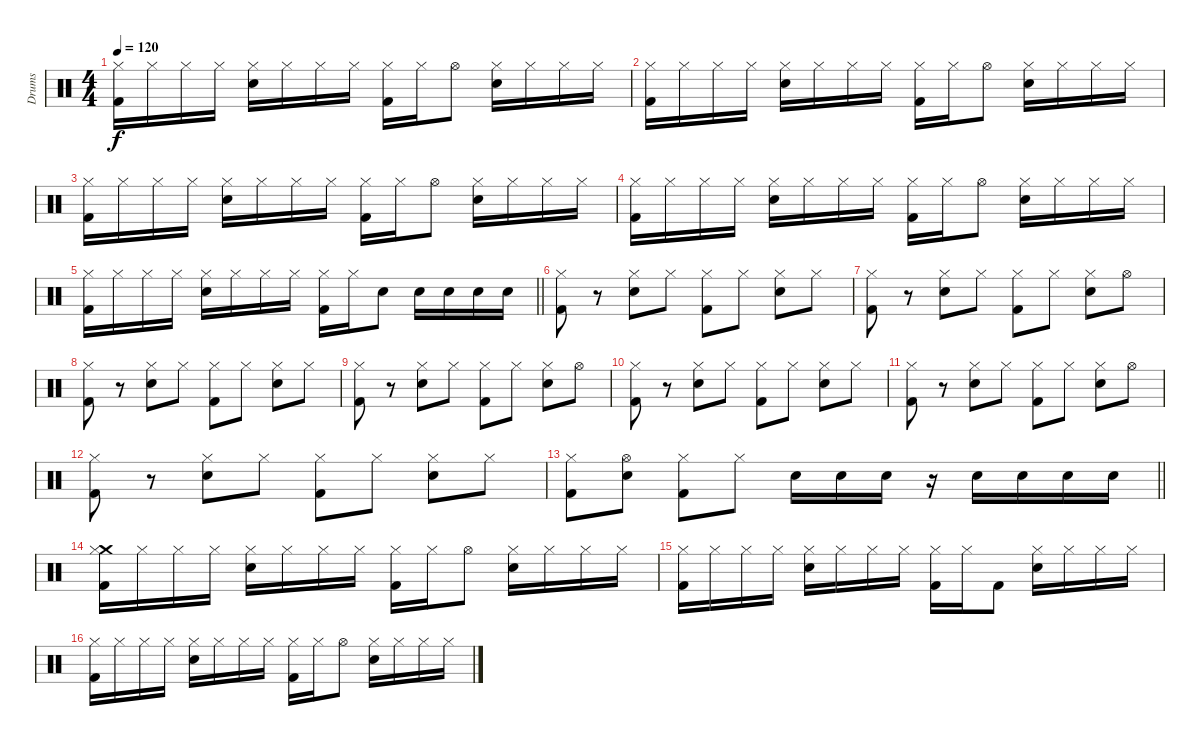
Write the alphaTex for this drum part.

\track ("Drums" "Drums") {instrument percussion}
\staff
\articulation defaults
\ts (4 4)
\tempo 120
\clef neutral
\ks c
("Hi-Hat (closed)" "Kick (hit) 2").16{dy f} "Hi-Hat (closed)".16 "Hi-Hat (closed)".16 "Hi-Hat (closed)".16 ("Hi-Hat (closed)" "Snare (hit) 2").16 "Hi-Hat (closed)".16 "Hi-Hat (closed)".16 "Hi-Hat (closed)".16 ("Hi-Hat (closed)" "Kick (hit) 2").16 "Hi-Hat (closed)".16 "Hi-Hat (open)".8 ("Hi-Hat (closed)" "Snare (hit) 2").16 "Hi-Hat (closed)".16 "Hi-Hat (closed)".16 "Hi-Hat (closed)".16 |
("Hi-Hat (closed)" "Kick (hit) 2").16 "Hi-Hat (closed)".16 "Hi-Hat (closed)".16 "Hi-Hat (closed)".16 ("Hi-Hat (closed)" "Snare (hit) 2").16 "Hi-Hat (closed)".16 "Hi-Hat (closed)".16 "Hi-Hat (closed)".16 ("Hi-Hat (closed)" "Kick (hit) 2").16 "Hi-Hat (closed)".16 "Hi-Hat (open)".8 ("Hi-Hat (closed)" "Snare (hit) 2").16 "Hi-Hat (closed)".16 "Hi-Hat (closed)".16 "Hi-Hat (closed)".16 |
("Hi-Hat (closed)" "Kick (hit) 2").16 "Hi-Hat (closed)".16 "Hi-Hat (closed)".16 "Hi-Hat (closed)".16 ("Hi-Hat (closed)" "Snare (hit) 2").16 "Hi-Hat (closed)".16 "Hi-Hat (closed)".16 "Hi-Hat (closed)".16 ("Hi-Hat (closed)" "Kick (hit) 2").16 "Hi-Hat (closed)".16 "Hi-Hat (open)".8 ("Hi-Hat (closed)" "Snare (hit) 2").16 "Hi-Hat (closed)".16 "Hi-Hat (closed)".16 "Hi-Hat (closed)".16 |
("Hi-Hat (closed)" "Kick (hit) 2").16 "Hi-Hat (closed)".16 "Hi-Hat (closed)".16 "Hi-Hat (closed)".16 ("Hi-Hat (closed)" "Snare (hit) 2").16 "Hi-Hat (closed)".16 "Hi-Hat (closed)".16 "Hi-Hat (closed)".16 ("Hi-Hat (closed)" "Kick (hit) 2").16 "Hi-Hat (closed)".16 "Hi-Hat (open)".8 ("Hi-Hat (closed)" "Snare (hit) 2").16 "Hi-Hat (closed)".16 "Hi-Hat (closed)".16 "Hi-Hat (closed)".16 |
\barLineRight lightlight
("Hi-Hat (closed)" "Kick (hit) 2").16 "Hi-Hat (closed)".16 "Hi-Hat (closed)".16 "Hi-Hat (closed)".16 ("Hi-Hat (closed)" "Snare (hit) 2").16 "Hi-Hat (closed)".16 "Hi-Hat (closed)".16 "Hi-Hat (closed)".16 ("Hi-Hat (closed)" "Kick (hit) 2").16 "Hi-Hat (closed)".16 "Snare (hit) 2".8 "Snare (hit) 2".16 "Snare (hit) 2".16 "Snare (hit) 2".16 "Snare (hit) 2".16 |
("Hi-Hat (closed)" "Kick (hit) 2").8 r.8 ("Hi-Hat (closed)" "Snare (hit) 2").8 "Hi-Hat (closed)".8 ("Hi-Hat (closed)" "Kick (hit) 2").8 "Hi-Hat (closed)".8 ("Hi-Hat (closed)" "Snare (hit) 2").8 "Hi-Hat (closed)".8 |
("Hi-Hat (closed)" "Kick (hit) 2").8 r.8 ("Hi-Hat (closed)" "Snare (hit) 2").8 "Hi-Hat (closed)".8 ("Hi-Hat (closed)" "Kick (hit) 2").8 "Hi-Hat (closed)".8 ("Hi-Hat (closed)" "Snare (hit) 2").8 "Hi-Hat (open)".8 |
("Hi-Hat (closed)" "Kick (hit) 2").8 r.8 ("Hi-Hat (closed)" "Snare (hit) 2").8 "Hi-Hat (closed)".8 ("Hi-Hat (closed)" "Kick (hit) 2").8 "Hi-Hat (closed)".8 ("Hi-Hat (closed)" "Snare (hit) 2").8 "Hi-Hat (closed)".8 |
("Hi-Hat (closed)" "Kick (hit) 2").8 r.8 ("Hi-Hat (closed)" "Snare (hit) 2").8 "Hi-Hat (closed)".8 ("Hi-Hat (closed)" "Kick (hit) 2").8 "Hi-Hat (closed)".8 ("Hi-Hat (closed)" "Snare (hit) 2").8 "Hi-Hat (open)".8 |
("Hi-Hat (closed)" "Kick (hit) 2").8 r.8 ("Hi-Hat (closed)" "Snare (hit) 2").8 "Hi-Hat (closed)".8 ("Hi-Hat (closed)" "Kick (hit) 2").8 "Hi-Hat (closed)".8 ("Hi-Hat (closed)" "Snare (hit) 2").8 "Hi-Hat (closed)".8 |
("Hi-Hat (closed)" "Kick (hit) 2").8 r.8 ("Hi-Hat (closed)" "Snare (hit) 2").8 "Hi-Hat (closed)".8 ("Hi-Hat (closed)" "Kick (hit) 2").8 "Hi-Hat (closed)".8 ("Hi-Hat (closed)" "Snare (hit) 2").8 "Hi-Hat (open)".8 |
("Hi-Hat (closed)" "Kick (hit) 2").8 r.8 ("Hi-Hat (closed)" "Snare (hit) 2").8 "Hi-Hat (closed)".8 ("Hi-Hat (closed)" "Kick (hit) 2").8 "Hi-Hat (closed)".8 ("Hi-Hat (closed)" "Snare (hit) 2").8 "Hi-Hat (closed)".8 |
\barLineRight lightlight
("Hi-Hat (closed)" "Kick (hit) 2").8 ("Hi-Hat (open)" "Snare (hit) 2").8 ("Hi-Hat (closed)" "Kick (hit) 2").8 "Hi-Hat (closed)".8 "Snare (hit) 2".16 "Snare (hit) 2".16 "Snare (hit) 2".16 r.16 "Snare (hit) 2".16 "Snare (hit) 2".16 "Snare (hit) 2".16 "Snare (hit) 2".16 |
("Crash medium (hit)" "Hi-Hat (closed)" "Kick (hit) 2").16 "Hi-Hat (closed)".16 "Hi-Hat (closed)".16 "Hi-Hat (closed)".16 ("Hi-Hat (closed)" "Snare (hit) 2").16 "Hi-Hat (closed)".16 "Hi-Hat (closed)".16 "Hi-Hat (closed)".16 ("Hi-Hat (closed)" "Kick (hit) 2").16 "Hi-Hat (closed)".16 "Hi-Hat (open)".8 ("Hi-Hat (closed)" "Snare (hit) 2").16 "Hi-Hat (closed)".16 "Hi-Hat (closed)".16 "Hi-Hat (closed)".16 |
("Hi-Hat (closed)" "Kick (hit) 2").16 "Hi-Hat (closed)".16 "Hi-Hat (closed)".16 "Hi-Hat (closed)".16 ("Hi-Hat (closed)" "Snare (hit) 2").16 "Hi-Hat (closed)".16 "Hi-Hat (closed)".16 "Hi-Hat (closed)".16 ("Hi-Hat (closed)" "Kick (hit) 2").16 "Hi-Hat (closed)".16 "Kick (hit) 2".8 ("Hi-Hat (closed)" "Snare (hit) 2").16 "Hi-Hat (closed)".16 "Hi-Hat (closed)".16 "Hi-Hat (closed)".16 |
("Hi-Hat (closed)" "Kick (hit) 2").16 "Hi-Hat (closed)".16 "Hi-Hat (closed)".16 "Hi-Hat (closed)".16 ("Hi-Hat (closed)" "Snare (hit) 2").16 "Hi-Hat (closed)".16 "Hi-Hat (closed)".16 "Hi-Hat (closed)".16 ("Hi-Hat (closed)" "Kick (hit) 2").16 "Hi-Hat (closed)".16 "Hi-Hat (open)".8 ("Hi-Hat (closed)" "Snare (hit) 2").16 "Hi-Hat (closed)".16 "Hi-Hat (closed)".16 "Hi-Hat (closed)".16
